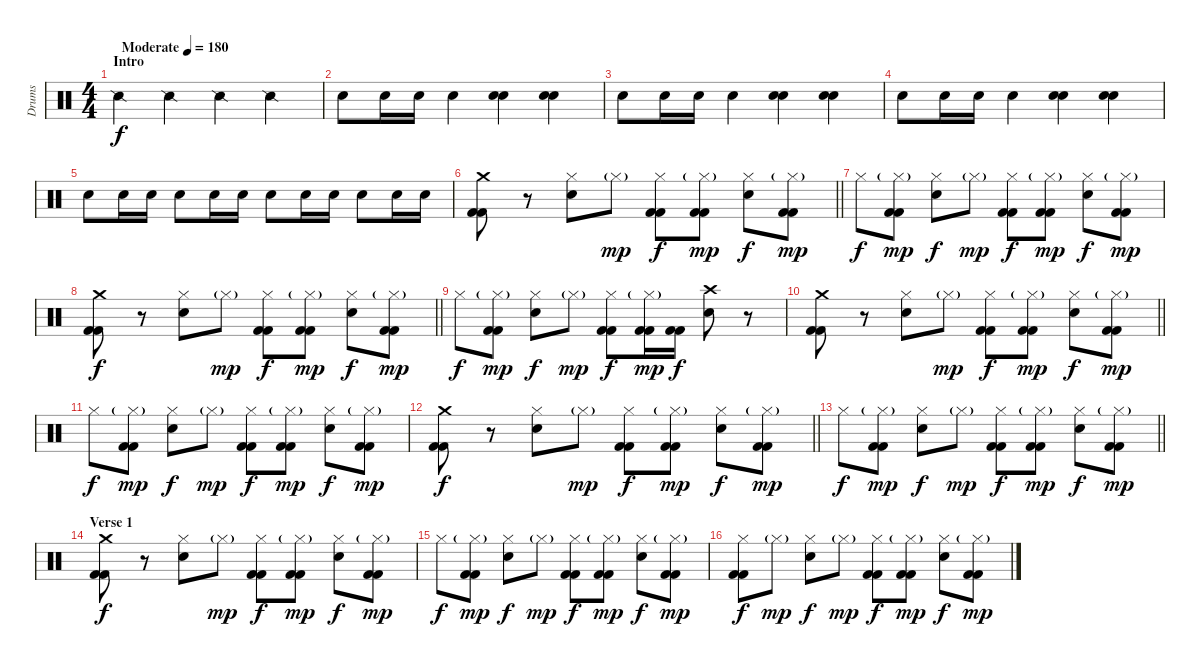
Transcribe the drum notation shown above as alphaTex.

\track ("Drums" "Drums") {instrument percussion}
\staff {score}
\articulation defaults
\ts (4 4)
\section ("" "Intro")
\tempo (180 "Moderate")
\clef neutral
\ks c "Snare (side stick) 2".4{dy f} "Snare (side stick) 2".4 "Snare (side stick) 2".4 "Snare (side stick) 2".4
|
"Snare (hit) 2".8 "Snare (hit) 2".16 "Snare (hit) 2".16 "Snare (hit) 2".4 ("Hand Clap (hit)" "Hand Clap (hit)").4 ("Hand Clap (hit)" "Hand Clap (hit)").4 |
"Snare (hit) 2".8 "Snare (hit) 2".16 "Snare (hit) 2".16 "Snare (hit) 2".4 ("Hand Clap (hit)" "Hand Clap (hit)").4 ("Hand Clap (hit)" "Hand Clap (hit)").4 |
"Snare (hit) 2".8 "Snare (hit) 2".16 "Snare (hit) 2".16 "Snare (hit) 2".4 ("Hand Clap (hit)" "Hand Clap (hit)").4 ("Hand Clap (hit)" "Hand Clap (hit)").4 |
"Snare (hit) 2".8 "Snare (hit) 2".16 "Snare (hit) 2".16 "Snare (hit) 2".8 "Snare (hit) 2".16 "Snare (hit) 2".16 "Snare (hit) 2".8 "Snare (hit) 2".16 "Snare (hit) 2".16 "Snare (hit) 2".8 "Snare (hit) 2".16 "Snare (hit) 2".16 |
\barLineRight lightlight
("Crash medium (hit)" "Kick (hit) 2" "Kick (hit) 2").8 r.8 ("Hi-Hat (closed)" "Snare (hit) 2").8 "Hi-Hat (closed)"{g}.8{dy mp} ("Hi-Hat (closed)" "Kick (hit) 2" "Kick (hit) 2").8{dy f} ("Hi-Hat (closed)"{g} "Kick (hit) 2" "Kick (hit) 2").8{dy mp} ("Hi-Hat (closed)" "Snare (hit) 2").8{dy f} ("Hi-Hat (closed)"{g} "Kick (hit) 2" "Kick (hit) 2").8{dy mp} |
"Hi-Hat (closed)".8{dy f} ("Hi-Hat (closed)"{g} "Kick (hit) 2" "Kick (hit) 2").8{dy mp} ("Hi-Hat (closed)" "Snare (hit) 2").8{dy f} "Hi-Hat (closed)"{g}.8{dy mp} ("Hi-Hat (closed)" "Kick (hit) 2" "Kick (hit) 2").8{dy f} ("Hi-Hat (closed)"{g} "Kick (hit) 2" "Kick (hit) 2").8{dy mp} ("Hi-Hat (closed)" "Snare (hit) 2").8{dy f} ("Hi-Hat (closed)"{g} "Kick (hit) 2" "Kick (hit) 2").8{dy mp} |
\barLineRight lightlight
("Crash medium (hit)" "Kick (hit) 2" "Kick (hit) 2").8{dy f} r.8 ("Hi-Hat (closed)" "Snare (hit) 2").8 "Hi-Hat (closed)"{g}.8{dy mp} ("Hi-Hat (closed)" "Kick (hit) 2" "Kick (hit) 2").8{dy f} ("Hi-Hat (closed)"{g} "Kick (hit) 2" "Kick (hit) 2").8{dy mp} ("Hi-Hat (closed)" "Snare (hit) 2").8{dy f} ("Hi-Hat (closed)"{g} "Kick (hit) 2" "Kick (hit) 2").8{dy mp} |
"Hi-Hat (closed)".8{dy f} ("Hi-Hat (closed)"{g} "Kick (hit) 2" "Kick (hit) 2").8{dy mp} ("Hi-Hat (closed)" "Snare (hit) 2").8{dy f} "Hi-Hat (closed)"{g}.8{dy mp} ("Hi-Hat (closed)" "Kick (hit) 2" "Kick (hit) 2").8{dy f} ("Hi-Hat (closed)"{g} "Kick (hit) 2" "Kick (hit) 2").16{dy mp} ("Kick (hit) 2" "Kick (hit) 2").16{dy f} ("Crash high (hit)" "Snare (hit) 2").8 r.8 |
\barLineRight lightlight
("Crash medium (hit)" "Kick (hit) 2" "Kick (hit) 2").8 r.8 ("Hi-Hat (closed)" "Snare (hit) 2").8 "Hi-Hat (closed)"{g}.8{dy mp} ("Hi-Hat (closed)" "Kick (hit) 2" "Kick (hit) 2").8{dy f} ("Hi-Hat (closed)"{g} "Kick (hit) 2" "Kick (hit) 2").8{dy mp} ("Hi-Hat (closed)" "Snare (hit) 2").8{dy f} ("Hi-Hat (closed)"{g} "Kick (hit) 2" "Kick (hit) 2").8{dy mp} |
"Hi-Hat (closed)".8{dy f} ("Hi-Hat (closed)"{g} "Kick (hit) 2" "Kick (hit) 2").8{dy mp} ("Hi-Hat (closed)" "Snare (hit) 2").8{dy f} "Hi-Hat (closed)"{g}.8{dy mp} ("Hi-Hat (closed)" "Kick (hit) 2" "Kick (hit) 2").8{dy f} ("Hi-Hat (closed)"{g} "Kick (hit) 2" "Kick (hit) 2").8{dy mp} ("Hi-Hat (closed)" "Snare (hit) 2").8{dy f} ("Hi-Hat (closed)"{g} "Kick (hit) 2" "Kick (hit) 2").8{dy mp} |
\barLineRight lightlight
("Crash medium (hit)" "Kick (hit) 2" "Kick (hit) 2").8{dy f} r.8 ("Hi-Hat (closed)" "Snare (hit) 2").8 "Hi-Hat (closed)"{g}.8{dy mp} ("Hi-Hat (closed)" "Kick (hit) 2" "Kick (hit) 2").8{dy f} ("Hi-Hat (closed)"{g} "Kick (hit) 2" "Kick (hit) 2").8{dy mp} ("Hi-Hat (closed)" "Snare (hit) 2").8{dy f} ("Hi-Hat (closed)"{g} "Kick (hit) 2" "Kick (hit) 2").8{dy mp} |
\barLineRight lightlight "Hi-Hat (closed)".8{dy f}
("Hi-Hat (closed)"{g} "Kick (hit) 2" "Kick (hit) 2").8{dy mp} ("Hi-Hat (closed)" "Snare (hit) 2").8{dy f} "Hi-Hat (closed)"{g}.8{dy mp} ("Hi-Hat (closed)" "Kick (hit) 2" "Kick (hit) 2").8{dy f} ("Hi-Hat (closed)"{g} "Kick (hit) 2" "Kick (hit) 2").8{dy mp} ("Hi-Hat (closed)" "Snare (hit) 2").8{dy f} ("Hi-Hat (closed)"{g} "Kick (hit) 2" "Kick (hit) 2").8{dy mp} |
\section ("" "Verse 1")
("Crash medium (hit)" "Kick (hit) 2" "Kick (hit) 2").8{dy f} r.8 ("Hi-Hat (closed)" "Snare (hit) 2").8 "Hi-Hat (closed)"{g}.8{dy mp} ("Hi-Hat (closed)" "Kick (hit) 2" "Kick (hit) 2").8{dy f} ("Hi-Hat (closed)"{g} "Kick (hit) 2" "Kick (hit) 2").8{dy mp} ("Hi-Hat (closed)" "Snare (hit) 2").8{dy f} ("Hi-Hat (closed)"{g} "Kick (hit) 2" "Kick (hit) 2").8{dy mp} |
"Hi-Hat (closed)".8{dy f} ("Hi-Hat (closed)"{g} "Kick (hit) 2" "Kick (hit) 2").8{dy mp} ("Hi-Hat (closed)" "Snare (hit) 2").8{dy f} "Hi-Hat (closed)"{g}.8{dy mp} ("Hi-Hat (closed)" "Kick (hit) 2" "Kick (hit) 2").8{dy f} ("Hi-Hat (closed)"{g} "Kick (hit) 2" "Kick (hit) 2").8{dy mp} ("Hi-Hat (closed)" "Snare (hit) 2").8{dy f} ("Hi-Hat (closed)"{g} "Kick (hit) 2" "Kick (hit) 2").8{dy mp} |
("Hi-Hat (closed)" "Kick (hit) 2" "Kick (hit) 2").8{dy f} "Hi-Hat (closed)"{g}.8{dy mp} ("Hi-Hat (closed)" "Snare (hit) 2").8{dy f} "Hi-Hat (closed)"{g}.8{dy mp} ("Hi-Hat (closed)" "Kick (hit) 2" "Kick (hit) 2").8{dy f} ("Hi-Hat (closed)"{g} "Kick (hit) 2" "Kick (hit) 2").8{dy mp} ("Hi-Hat (closed)" "Snare (hit) 2").8{dy f} ("Hi-Hat (closed)"{g} "Kick (hit) 2" "Kick (hit) 2").8{dy mp}
